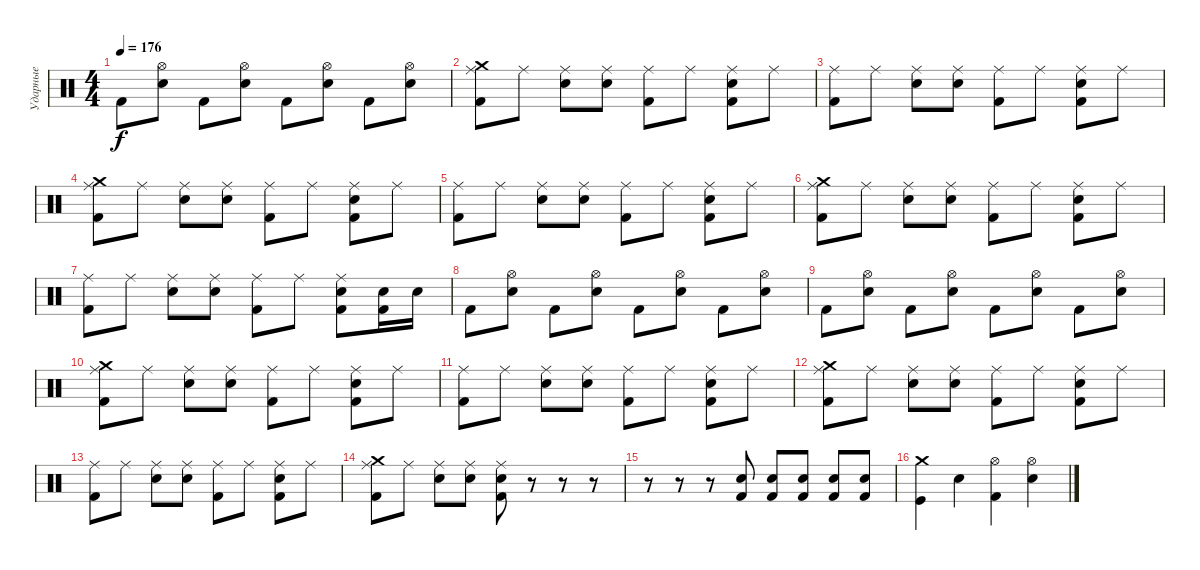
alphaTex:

\track ("Ударные" "Ударные") {instrument percussion}
\staff {score}
\articulation defaults
\ts (4 4)
\tempo 176
\clef neutral
\ks c "Kick (hit) 2".8{dy f}
("Electric Snare (hit)" "Hi-Hat (open)").8 "Kick (hit) 2".8 ("Electric Snare (hit)" "Hi-Hat (open)").8 "Kick (hit) 2".8 ("Electric Snare (hit)" "Hi-Hat (open)").8 "Kick (hit) 2".8 ("Electric Snare (hit)" "Hi-Hat (open)").8 |
("Kick (hit) 2" "Ride (middle)" "Crash medium (hit)").8 "Ride (middle)".8 ("Ride (middle)" "Electric Snare (hit)").8 ("Ride (middle)" "Electric Snare (hit)").8 ("Kick (hit) 2" "Ride (middle)").8 "Ride (middle)".8 ("Kick (hit) 2" "Ride (middle)" "Electric Snare (hit)").8 "Ride (middle)".8 |
("Kick (hit) 2" "Ride (middle)").8 "Ride (middle)".8 ("Ride (middle)" "Electric Snare (hit)").8 ("Ride (middle)" "Electric Snare (hit)").8 ("Kick (hit) 2" "Ride (middle)").8 "Ride (middle)".8 ("Kick (hit) 2" "Ride (middle)" "Electric Snare (hit)").8 "Ride (middle)".8 |
("Kick (hit) 2" "Ride (middle)" "Crash medium (hit)").8 "Ride (middle)".8 ("Ride (middle)" "Electric Snare (hit)").8 ("Ride (middle)" "Electric Snare (hit)").8 ("Kick (hit) 2" "Ride (middle)").8 "Ride (middle)".8 ("Kick (hit) 2" "Ride (middle)" "Electric Snare (hit)").8 "Ride (middle)".8 |
("Kick (hit) 2" "Ride (middle)").8 "Ride (middle)".8 ("Ride (middle)" "Electric Snare (hit)").8 ("Ride (middle)" "Electric Snare (hit)").8 ("Kick (hit) 2" "Ride (middle)").8 "Ride (middle)".8 ("Kick (hit) 2" "Ride (middle)" "Electric Snare (hit)").8 "Ride (middle)".8 |
("Kick (hit) 2" "Ride (middle)" "Crash medium (hit)").8 "Ride (middle)".8 ("Ride (middle)" "Electric Snare (hit)").8 ("Ride (middle)" "Electric Snare (hit)").8 ("Kick (hit) 2" "Ride (middle)").8 "Ride (middle)".8 ("Kick (hit) 2" "Ride (middle)" "Electric Snare (hit)").8 "Ride (middle)".8 |
("Kick (hit) 2" "Ride (middle)").8 "Ride (middle)".8 ("Ride (middle)" "Electric Snare (hit)").8 ("Ride (middle)" "Electric Snare (hit)").8 ("Kick (hit) 2" "Ride (middle)").8 "Ride (middle)".8 ("Kick (hit) 2" "Ride (middle)" "Electric Snare (hit)").8 ("Kick (hit) 2" "Electric Snare (hit)").16 "Electric Snare (hit)".16 |
"Kick (hit) 2".8 ("Electric Snare (hit)" "Hi-Hat (open)").8 "Kick (hit) 2".8 ("Electric Snare (hit)" "Hi-Hat (open)").8 "Kick (hit) 2".8 ("Electric Snare (hit)" "Hi-Hat (open)").8 "Kick (hit) 2".8 ("Electric Snare (hit)" "Hi-Hat (open)").8 |
"Kick (hit) 2".8 ("Electric Snare (hit)" "Hi-Hat (open)").8 "Kick (hit) 2".8 ("Electric Snare (hit)" "Hi-Hat (open)").8 "Kick (hit) 2".8 ("Electric Snare (hit)" "Hi-Hat (open)").8 "Kick (hit) 2".8 ("Electric Snare (hit)" "Hi-Hat (open)").8 |
("Kick (hit) 2" "Ride (middle)" "Crash medium (hit)").8 "Ride (middle)".8 ("Ride (middle)" "Electric Snare (hit)").8 ("Ride (middle)" "Electric Snare (hit)").8 ("Kick (hit) 2" "Ride (middle)").8 "Ride (middle)".8 ("Kick (hit) 2" "Ride (middle)" "Electric Snare (hit)").8 "Ride (middle)".8 |
("Kick (hit) 2" "Ride (middle)").8 "Ride (middle)".8 ("Ride (middle)" "Electric Snare (hit)").8 ("Ride (middle)" "Electric Snare (hit)").8 ("Kick (hit) 2" "Ride (middle)").8 "Ride (middle)".8 ("Kick (hit) 2" "Ride (middle)" "Electric Snare (hit)").8 "Ride (middle)".8 |
("Kick (hit) 2" "Ride (middle)" "Crash medium (hit)").8 "Ride (middle)".8 ("Ride (middle)" "Electric Snare (hit)").8 ("Ride (middle)" "Electric Snare (hit)").8 ("Kick (hit) 2" "Ride (middle)").8 "Ride (middle)".8 ("Kick (hit) 2" "Ride (middle)" "Electric Snare (hit)").8 "Ride (middle)".8 |
("Kick (hit) 2" "Ride (middle)").8 "Ride (middle)".8 ("Ride (middle)" "Electric Snare (hit)").8 ("Ride (middle)" "Electric Snare (hit)").8 ("Kick (hit) 2" "Ride (middle)").8 "Ride (middle)".8 ("Kick (hit) 2" "Ride (middle)" "Electric Snare (hit)").8 "Ride (middle)".8 |
("Kick (hit) 2" "Ride (middle)" "Crash medium (hit)").8 "Ride (middle)".8 ("Ride (middle)" "Electric Snare (hit)").8 ("Ride (middle)" "Electric Snare (hit)").8 ("Kick (hit) 2" "Electric Snare (hit)" "Ride (middle)").8 r.8 r.8 r.8 |
r.8 r.8 r.8 ("Kick (hit) 2" "Electric Snare (hit)").8 ("Kick (hit) 2" "Electric Snare (hit)").8 ("Kick (hit) 2" "Electric Snare (hit)").8 ("Kick (hit) 2" "Electric Snare (hit)").8 ("Kick (hit) 2" "Electric Snare (hit)").8 |
("Kick (hit)" "Crash medium (hit)").4 "Electric Snare (hit)".4 ("Kick (hit) 2" "Hi-Hat (open)").4 ("Electric Snare (hit)" "Hi-Hat (open)").4
